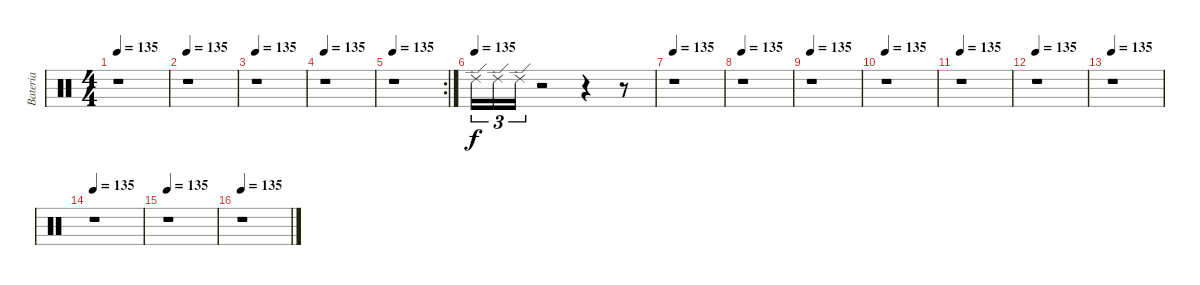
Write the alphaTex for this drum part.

\track ("Bateria" "Bateria") {instrument percussion}
\staff {score}
\articulation defaults
\ts (4 4)
\tempo 135
\clef neutral
\ks c
r.1{dy f} |
\tempo 135
r.1 |
\tempo 135
r.1 |
\tempo 135
r.1 |
\rc 2
\tempo 135
r.1 |
\tempo (135)
"Ride (edge) 2".16{tu (3 2)} "Ride (edge) 2".16{tu (3 2)} "Ride (edge) 2".16{tu (3 2)} r.2 r.4 r.8 |
\tempo 135
r.1 |
\tempo 135
r.1 |
\tempo 135
r.1 |
\tempo 135
r.1 |
\tempo 135
r.1 |
\tempo 135
r.1 |
\tempo 135
r.1 |
\tempo 135
r.1 |
\tempo 135
r.1 |
\tempo 135
r.1
